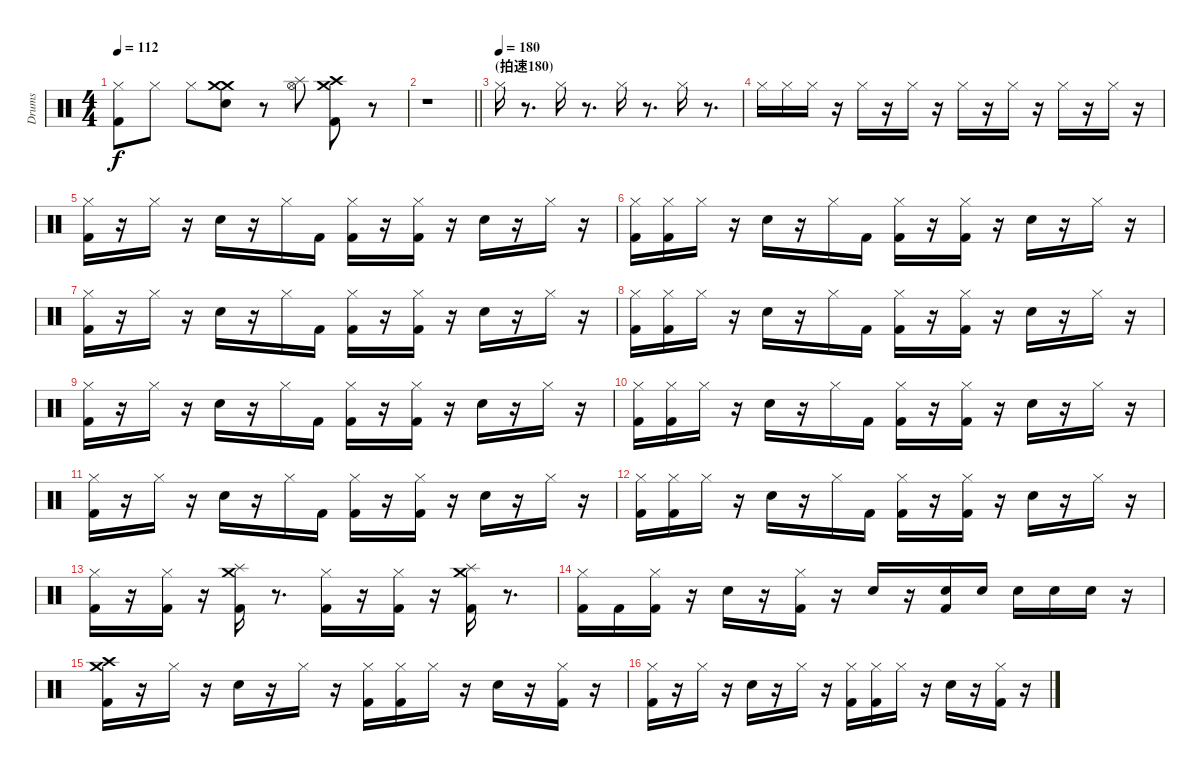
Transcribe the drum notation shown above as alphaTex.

\track ("Drums" "Drums") {instrument percussion}
\staff {score}
\articulation defaults
\ts (4 4)
\tempo 112
\clef neutral
\ks c
("Hi-Hat (closed)" "Kick (hit) 2").8{dy f} "Hi-Hat (closed)".8 "Hi-Hat (closed)".8 ("Crash medium (hit)" "Crash medium (hit)" "Snare (hit) 2").8 r.8 ("Splash (hit)" "Hi-Hat (open)").8 ("Crash medium (hit)" "Crash high (hit)" "Kick (hit) 2").8 r.8 |
\barLineRight lightlight
r.1 |
\section ("" "(拍速180)")
\tempo (180)
"Hi-Hat (closed)".16 r.8{d} "Hi-Hat (closed)".16 r.8{d} "Hi-Hat (closed)".16 r.8{d} "Hi-Hat (closed)".16 r.8{d} |
"Hi-Hat (closed)".16 "Hi-Hat (closed)".16 "Hi-Hat (closed)".16 r.16 "Hi-Hat (closed)".16 r.16 "Hi-Hat (closed)".16 r.16 "Hi-Hat (closed)".16 r.16 "Hi-Hat (closed)".16 r.16 "Hi-Hat (closed)".16 r.16 "Hi-Hat (closed)".16 r.16 |
("Hi-Hat (closed)" "Kick (hit) 2").16 r.16 "Hi-Hat (closed)".16 r.16 "Snare (hit) 2".16 r.16 "Hi-Hat (closed)".16 "Kick (hit) 2".16 ("Hi-Hat (closed)" "Kick (hit) 2").16 r.16 ("Hi-Hat (closed)" "Kick (hit) 2").16 r.16 "Snare (hit) 2".16 r.16 "Hi-Hat (closed)".16 r.16 |
("Hi-Hat (closed)" "Kick (hit) 2").16 ("Hi-Hat (closed)" "Kick (hit) 2").16 "Hi-Hat (closed)".16 r.16 "Snare (hit) 2".16 r.16 "Hi-Hat (closed)".16 "Kick (hit) 2".16 ("Hi-Hat (closed)" "Kick (hit) 2").16 r.16 ("Hi-Hat (closed)" "Kick (hit) 2").16 r.16 "Snare (hit) 2".16 r.16 "Hi-Hat (closed)".16 r.16 |
("Hi-Hat (closed)" "Kick (hit) 2").16 r.16 "Hi-Hat (closed)".16 r.16 "Snare (hit) 2".16 r.16 "Hi-Hat (closed)".16 "Kick (hit) 2".16 ("Hi-Hat (closed)" "Kick (hit) 2").16 r.16 ("Hi-Hat (closed)" "Kick (hit) 2").16 r.16 "Snare (hit) 2".16 r.16 "Hi-Hat (closed)".16 r.16 |
("Hi-Hat (closed)" "Kick (hit) 2").16 ("Hi-Hat (closed)" "Kick (hit) 2").16 "Hi-Hat (closed)".16 r.16 "Snare (hit) 2".16 r.16 "Hi-Hat (closed)".16 "Kick (hit) 2".16 ("Hi-Hat (closed)" "Kick (hit) 2").16 r.16 ("Hi-Hat (closed)" "Kick (hit) 2").16 r.16 "Snare (hit) 2".16 r.16 "Hi-Hat (closed)".16 r.16 |
("Hi-Hat (closed)" "Kick (hit) 2").16 r.16 "Hi-Hat (closed)".16 r.16 "Snare (hit) 2".16 r.16 "Hi-Hat (closed)".16 "Kick (hit) 2".16 ("Hi-Hat (closed)" "Kick (hit) 2").16 r.16 ("Hi-Hat (closed)" "Kick (hit) 2").16 r.16 "Snare (hit) 2".16 r.16 "Hi-Hat (closed)".16 r.16 |
("Hi-Hat (closed)" "Kick (hit) 2").16 ("Hi-Hat (closed)" "Kick (hit) 2").16 "Hi-Hat (closed)".16 r.16 "Snare (hit) 2".16 r.16 "Hi-Hat (closed)".16 "Kick (hit) 2".16 ("Hi-Hat (closed)" "Kick (hit) 2").16 r.16 ("Hi-Hat (closed)" "Kick (hit) 2").16 r.16 "Snare (hit) 2".16 r.16 "Hi-Hat (closed)".16 r.16 |
("Hi-Hat (closed)" "Kick (hit) 2").16 r.16 "Hi-Hat (closed)".16 r.16 "Snare (hit) 2".16 r.16 "Hi-Hat (closed)".16 "Kick (hit) 2".16 ("Hi-Hat (closed)" "Kick (hit) 2").16 r.16 ("Hi-Hat (closed)" "Kick (hit) 2").16 r.16 "Snare (hit) 2".16 r.16 "Hi-Hat (closed)".16 r.16 |
("Hi-Hat (closed)" "Kick (hit) 2").16 ("Hi-Hat (closed)" "Kick (hit) 2").16 "Hi-Hat (closed)".16 r.16 "Snare (hit) 2".16 r.16 "Hi-Hat (closed)".16 "Kick (hit) 2".16 ("Hi-Hat (closed)" "Kick (hit) 2").16 r.16 ("Hi-Hat (closed)" "Kick (hit) 2").16 r.16 "Snare (hit) 2".16 r.16 "Hi-Hat (closed)".16 r.16 |
("Hi-Hat (closed)" "Kick (hit) 2").16 r.16 ("Hi-Hat (closed)" "Kick (hit) 2").16 r.16 ("Crash medium (hit)" "Splash (hit)" "Kick (hit) 2").16 r.8{d} ("Hi-Hat (closed)" "Kick (hit) 2").16 r.16 ("Hi-Hat (closed)" "Kick (hit) 2").16 r.16 ("Crash medium (hit)" "Splash (hit)" "Kick (hit) 2").16 r.8{d} |
("Hi-Hat (closed)" "Kick (hit) 2").16 "Kick (hit) 2".16 ("Hi-Hat (closed)" "Kick (hit) 2").16 r.16 "Snare (hit) 2".16 r.16 ("Hi-Hat (closed)" "Kick (hit) 2").16 r.16 "Snare (hit) 2".16 r.16 ("Snare (hit) 2" "Kick (hit) 2").16 "Snare (hit) 2".16 "Snare (hit) 2".16 "Snare (hit) 2".16 "Snare (hit) 2".16 r.16 |
("Crash medium (hit)" "Crash high (hit)" "Kick (hit) 2").16 r.16 "Hi-Hat (closed)".16 r.16 "Snare (hit) 2".16 r.16 "Hi-Hat (closed)".16 r.16 ("Hi-Hat (closed)" "Kick (hit) 2").16 ("Hi-Hat (closed)" "Kick (hit) 2").16 "Hi-Hat (closed)".16 r.16 "Snare (hit) 2".16 r.16 ("Hi-Hat (closed)" "Kick (hit) 2").16 r.16 |
("Hi-Hat (closed)" "Kick (hit) 2").16 r.16 "Hi-Hat (closed)".16 r.16 "Snare (hit) 2".16 r.16 "Hi-Hat (closed)".16 r.16 ("Hi-Hat (closed)" "Kick (hit) 2").16 ("Hi-Hat (closed)" "Kick (hit) 2").16 "Hi-Hat (closed)".16 r.16 "Snare (hit) 2".16 r.16 ("Hi-Hat (closed)" "Kick (hit) 2").16 r.16
